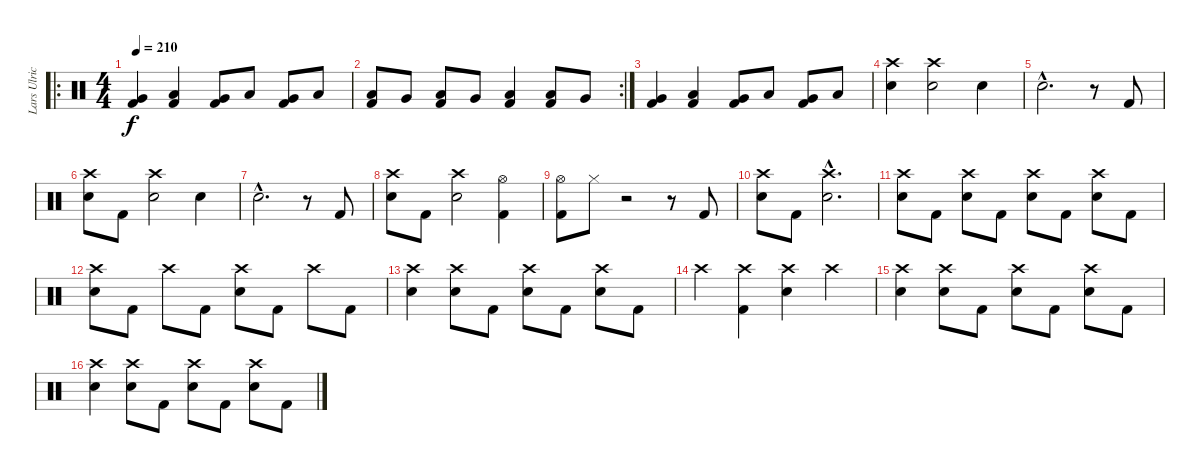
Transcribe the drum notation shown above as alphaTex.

\track ("Lars Ulrich" "Lars Ulric") {instrument percussion}
\staff {score}
\articulation defaults
\ro
\ts (4 4)
\tempo 210
\clef neutral
\ks c
("Very Low Tom (hit)" "Kick (hit) 2").4{dy f} ("Low Floor Tom (hit)" "Kick (hit) 2").4 ("Very Low Tom (hit)" "Kick (hit) 2").8 "Low Floor Tom (hit)".8 ("Very Low Tom (hit)" "Kick (hit) 2").8 "Low Floor Tom (hit)".8 |
\rc 2
("Low Floor Tom (hit)" "Kick (hit) 2").8 "Very Low Tom (hit)".8 ("Low Floor Tom (hit)" "Kick (hit) 2").8 "Very Low Tom (hit)".8 ("Low Floor Tom (hit)" "Kick (hit) 2").4 ("Low Floor Tom (hit)" "Kick (hit) 2").8 "Very Low Tom (hit)".8 |
("Very Low Tom (hit)" "Kick (hit) 2").4 ("Low Floor Tom (hit)" "Kick (hit) 2").4 ("Very Low Tom (hit)" "Kick (hit) 2").8 "Low Floor Tom (hit)".8 ("Very Low Tom (hit)" "Kick (hit) 2").8 "Low Floor Tom (hit)".8 |
("Crash high (hit)" "Snare (hit) 2").4 ("Crash high (hit)" "Snare (hit) 2").2 "Snare (hit) 2".4 |
"Snare (hit) 2"{hac}.2{d} r.8 "Kick (hit) 2".8 |
("Crash high (hit)" "Snare (hit) 2").8 "Kick (hit) 2".8 ("Crash high (hit)" "Snare (hit) 2").2 "Snare (hit) 2".4 |
"Snare (hit) 2"{hac}.2{d} r.8 "Kick (hit) 2".8 |
("Crash high (hit)" "Snare (hit) 2").8 "Kick (hit) 2".8 ("Crash high (hit)" "Snare (hit) 2").2 ("Hi-Hat (open)" "Kick (hit) 2").4 |
("Hi-Hat (open)" "Kick (hit) 2").8 "Hi-Hat (closed)".8 r.2 r.8 "Kick (hit) 2".8 |
("Crash high (hit)" "Snare (hit) 2").8 "Kick (hit) 2".8 ("Crash high (hit)"{hac} "Snare (hit) 2"{hac}).2{d} |
("Crash high (hit)" "Snare (hit) 2").8 "Kick (hit) 2".8 ("Crash high (hit)" "Snare (hit) 2").8 "Kick (hit) 2".8 ("Crash high (hit)" "Snare (hit) 2").8 "Kick (hit) 2".8 ("Crash high (hit)" "Snare (hit) 2").8 "Kick (hit) 2".8 |
("Crash high (hit)" "Snare (hit) 2").8 "Kick (hit) 2".8 "Crash high (hit)".8 "Kick (hit) 2".8 ("Crash high (hit)" "Snare (hit) 2").8 "Kick (hit) 2".8 "Crash high (hit)".8 "Kick (hit) 2".8 |
("Crash high (hit)" "Snare (hit) 2").4 ("Crash high (hit)" "Snare (hit) 2").8 "Kick (hit) 2".8 ("Crash high (hit)" "Snare (hit) 2").8 "Kick (hit) 2".8 ("Crash high (hit)" "Snare (hit) 2").8 "Kick (hit) 2".8 |
"Crash high (hit)".4 ("Crash high (hit)" "Kick (hit) 2").4 ("Crash high (hit)" "Snare (hit) 2").4 "Crash high (hit)".4 |
("Crash high (hit)" "Snare (hit) 2").4 ("Crash high (hit)" "Snare (hit) 2").8 "Kick (hit) 2".8 ("Crash high (hit)" "Snare (hit) 2").8 "Kick (hit) 2".8 ("Crash high (hit)" "Snare (hit) 2").8 "Kick (hit) 2".8 |
("Crash high (hit)" "Snare (hit) 2").4 ("Crash high (hit)" "Snare (hit) 2").8 "Kick (hit) 2".8 ("Crash high (hit)" "Snare (hit) 2").8 "Kick (hit) 2".8 ("Crash high (hit)" "Snare (hit) 2").8 "Kick (hit) 2".8
